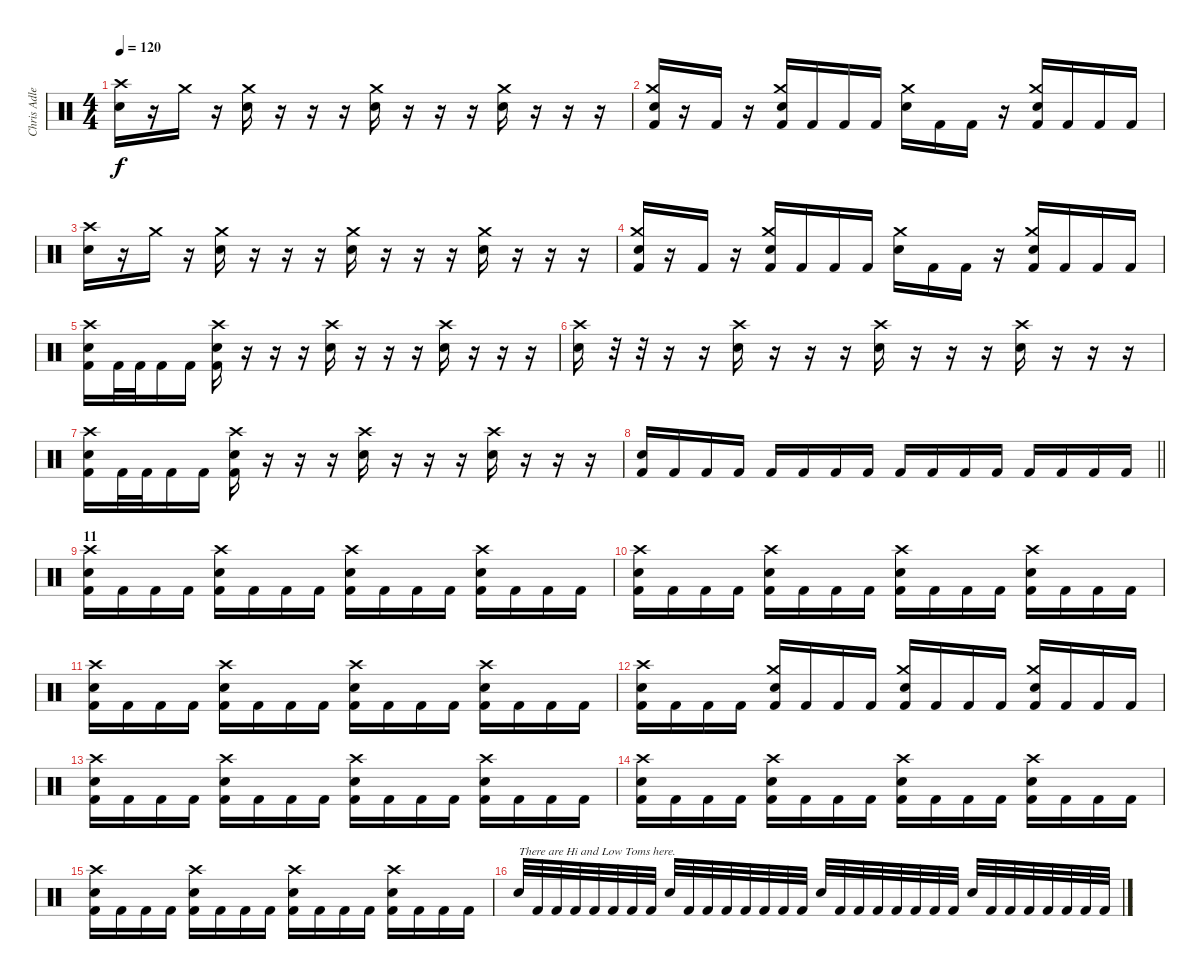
\track ("Chris Adler" "Chris Adle") {instrument percussion}
\staff {score}
\articulation defaults
\ts (4 4)
\tempo 120
\clef neutral
\ks c
("Crash high (hit)" "Electric Snare (hit)").16{dy f} r.16 "Crash medium (hit)".16 r.16 ("Crash medium (hit)" "Electric Snare (hit)").16 r.16 r.16 r.16 ("Crash medium (hit)" "Electric Snare (hit)").16 r.16 r.16 r.16 ("Crash medium (hit)" "Electric Snare (hit)").16 r.16 r.16 r.16 |
("Crash medium (hit)" "Electric Snare (hit)" "Kick (hit) 2").16 r.16 "Kick (hit) 2".16 r.16 ("Crash medium (hit)" "Electric Snare (hit)" "Kick (hit) 2").16 "Kick (hit) 2".16 "Kick (hit) 2".16 "Kick (hit) 2".16 ("Crash medium (hit)" "Electric Snare (hit)").16 "Kick (hit) 2".16 "Kick (hit) 2".16 r.16 ("Crash medium (hit)" "Electric Snare (hit)" "Kick (hit) 2").16 "Kick (hit) 2".16 "Kick (hit) 2".16 "Kick (hit) 2".16 |
("Crash high (hit)" "Electric Snare (hit)").16 r.16 "Crash medium (hit)".16 r.16 ("Crash medium (hit)" "Electric Snare (hit)").16 r.16 r.16 r.16 ("Crash medium (hit)" "Electric Snare (hit)").16 r.16 r.16 r.16 ("Crash medium (hit)" "Electric Snare (hit)").16 r.16 r.16 r.16 |
("Crash medium (hit)" "Electric Snare (hit)" "Kick (hit) 2").16 r.16 "Kick (hit) 2".16 r.16 ("Crash medium (hit)" "Electric Snare (hit)" "Kick (hit) 2").16 "Kick (hit) 2".16 "Kick (hit) 2".16 "Kick (hit) 2".16 ("Crash medium (hit)" "Electric Snare (hit)").16 "Kick (hit) 2".16 "Kick (hit) 2".16 r.16 ("Crash medium (hit)" "Electric Snare (hit)" "Kick (hit) 2").16 "Kick (hit) 2".16 "Kick (hit) 2".16 "Kick (hit) 2".16 |
("Crash high (hit)" "Electric Snare (hit)" "Kick (hit) 2").16 "Kick (hit) 2".32 "Kick (hit) 2".32 "Kick (hit) 2".16 "Kick (hit) 2".16 ("Crash high (hit)" "Electric Snare (hit)" "Kick (hit) 2").16 r.16 r.16 r.16 ("Crash high (hit)" "Electric Snare (hit)").16 r.16 r.16 r.16 ("Crash high (hit)" "Electric Snare (hit)").16 r.16 r.16 r.16 |
("Crash high (hit)" "Electric Snare (hit)").16 r.32 r.32 r.16 r.16 ("Crash high (hit)" "Electric Snare (hit)").16 r.16 r.16 r.16 ("Crash high (hit)" "Electric Snare (hit)").16 r.16 r.16 r.16 ("Crash high (hit)" "Electric Snare (hit)").16 r.16 r.16 r.16 |
("Crash high (hit)" "Electric Snare (hit)" "Kick (hit) 2").16 "Kick (hit) 2".32 "Kick (hit) 2".32 "Kick (hit) 2".16 "Kick (hit) 2".16 ("Crash high (hit)" "Electric Snare (hit)" "Kick (hit) 2").16 r.16 r.16 r.16 ("Crash high (hit)" "Electric Snare (hit)").16 r.16 r.16 r.16 ("Crash high (hit)" "Electric Snare (hit)").16 r.16 r.16 r.16 |
\barLineRight lightlight
("Electric Snare (hit)" "Kick (hit) 2").16 "Kick (hit) 2".16 "Kick (hit) 2".16 "Kick (hit) 2".16 "Kick (hit) 2".16 "Kick (hit) 2".16 "Kick (hit) 2".16 "Kick (hit) 2".16 "Kick (hit) 2".16 "Kick (hit) 2".16 "Kick (hit) 2".16 "Kick (hit) 2".16 "Kick (hit) 2".16 "Kick (hit) 2".16 "Kick (hit) 2".16 "Kick (hit) 2".16 |
\section ("" "11")
("Crash high (hit)" "Electric Snare (hit)" "Kick (hit) 2").16 "Kick (hit) 2".16 "Kick (hit) 2".16 "Kick (hit) 2".16 ("Crash high (hit)" "Electric Snare (hit)" "Kick (hit) 2").16 "Kick (hit) 2".16 "Kick (hit) 2".16 "Kick (hit) 2".16 ("Crash high (hit)" "Electric Snare (hit)" "Kick (hit) 2").16 "Kick (hit) 2".16 "Kick (hit) 2".16 "Kick (hit) 2".16 ("Crash high (hit)" "Electric Snare (hit)" "Kick (hit) 2").16 "Kick (hit) 2".16 "Kick (hit) 2".16 "Kick (hit) 2".16 |
("Crash high (hit)" "Electric Snare (hit)" "Kick (hit) 2").16 "Kick (hit) 2".16 "Kick (hit) 2".16 "Kick (hit) 2".16 ("Crash high (hit)" "Electric Snare (hit)" "Kick (hit) 2").16 "Kick (hit) 2".16 "Kick (hit) 2".16 "Kick (hit) 2".16 ("Crash high (hit)" "Electric Snare (hit)" "Kick (hit) 2").16 "Kick (hit) 2".16 "Kick (hit) 2".16 "Kick (hit) 2".16 ("Crash high (hit)" "Electric Snare (hit)" "Kick (hit) 2").16 "Kick (hit) 2".16 "Kick (hit) 2".16 "Kick (hit) 2".16 |
("Crash high (hit)" "Electric Snare (hit)" "Kick (hit) 2").16 "Kick (hit) 2".16 "Kick (hit) 2".16 "Kick (hit) 2".16 ("Crash high (hit)" "Electric Snare (hit)" "Kick (hit) 2").16 "Kick (hit) 2".16 "Kick (hit) 2".16 "Kick (hit) 2".16 ("Crash high (hit)" "Electric Snare (hit)" "Kick (hit) 2").16 "Kick (hit) 2".16 "Kick (hit) 2".16 "Kick (hit) 2".16 ("Crash high (hit)" "Electric Snare (hit)" "Kick (hit) 2").16 "Kick (hit) 2".16 "Kick (hit) 2".16 "Kick (hit) 2".16 |
("Crash high (hit)" "Electric Snare (hit)" "Kick (hit) 2").16 "Kick (hit) 2".16 "Kick (hit) 2".16 "Kick (hit) 2".16 ("Crash medium (hit)" "Electric Snare (hit)" "Kick (hit) 2").16 "Kick (hit) 2".16 "Kick (hit) 2".16 "Kick (hit) 2".16 ("Crash medium (hit)" "Electric Snare (hit)" "Kick (hit) 2").16 "Kick (hit) 2".16 "Kick (hit) 2".16 "Kick (hit) 2".16 ("Crash medium (hit)" "Electric Snare (hit)" "Kick (hit) 2").16 "Kick (hit) 2".16 "Kick (hit) 2".16 "Kick (hit) 2".16 |
("Crash high (hit)" "Electric Snare (hit)" "Kick (hit) 2").16 "Kick (hit) 2".16 "Kick (hit) 2".16 "Kick (hit) 2".16 ("Crash high (hit)" "Electric Snare (hit)" "Kick (hit) 2").16 "Kick (hit) 2".16 "Kick (hit) 2".16 "Kick (hit) 2".16 ("Crash high (hit)" "Electric Snare (hit)" "Kick (hit) 2").16 "Kick (hit) 2".16 "Kick (hit) 2".16 "Kick (hit) 2".16 ("Crash high (hit)" "Electric Snare (hit)" "Kick (hit) 2").16 "Kick (hit) 2".16 "Kick (hit) 2".16 "Kick (hit) 2".16 |
("Crash high (hit)" "Electric Snare (hit)" "Kick (hit) 2").16 "Kick (hit) 2".16 "Kick (hit) 2".16 "Kick (hit) 2".16 ("Crash high (hit)" "Electric Snare (hit)" "Kick (hit) 2").16 "Kick (hit) 2".16 "Kick (hit) 2".16 "Kick (hit) 2".16 ("Crash high (hit)" "Electric Snare (hit)" "Kick (hit) 2").16 "Kick (hit) 2".16 "Kick (hit) 2".16 "Kick (hit) 2".16 ("Crash high (hit)" "Electric Snare (hit)" "Kick (hit) 2").16 "Kick (hit) 2".16 "Kick (hit) 2".16 "Kick (hit) 2".16 |
("Crash high (hit)" "Electric Snare (hit)" "Kick (hit) 2").16 "Kick (hit) 2".16 "Kick (hit) 2".16 "Kick (hit) 2".16 ("Crash high (hit)" "Electric Snare (hit)" "Kick (hit) 2").16 "Kick (hit) 2".16 "Kick (hit) 2".16 "Kick (hit) 2".16 ("Crash high (hit)" "Electric Snare (hit)" "Kick (hit) 2").16 "Kick (hit) 2".16 "Kick (hit) 2".16 "Kick (hit) 2".16 ("Crash high (hit)" "Electric Snare (hit)" "Kick (hit) 2").16 "Kick (hit) 2".16 "Kick (hit) 2".16 "Kick (hit) 2".16 |
"Electric Snare (hit)".32{txt "There are Hi and Low Toms here."} "Kick (hit) 2".32 "Kick (hit) 2".32 "Kick (hit) 2".32 "Kick (hit) 2".32 "Kick (hit) 2".32 "Kick (hit) 2".32 "Kick (hit) 2".32 "Electric Snare (hit)".32 "Kick (hit) 2".32 "Kick (hit) 2".32 "Kick (hit) 2".32 "Kick (hit) 2".32 "Kick (hit) 2".32 "Kick (hit) 2".32 "Kick (hit) 2".32 "Electric Snare (hit)".32 "Kick (hit) 2".32 "Kick (hit) 2".32 "Kick (hit) 2".32 "Kick (hit) 2".32 "Kick (hit) 2".32 "Kick (hit) 2".32 "Kick (hit) 2".32 "Electric Snare (hit)".32 "Kick (hit) 2".32 "Kick (hit) 2".32 "Kick (hit) 2".32 "Kick (hit) 2".32 "Kick (hit) 2".32 "Kick (hit) 2".32 "Kick (hit) 2".32
